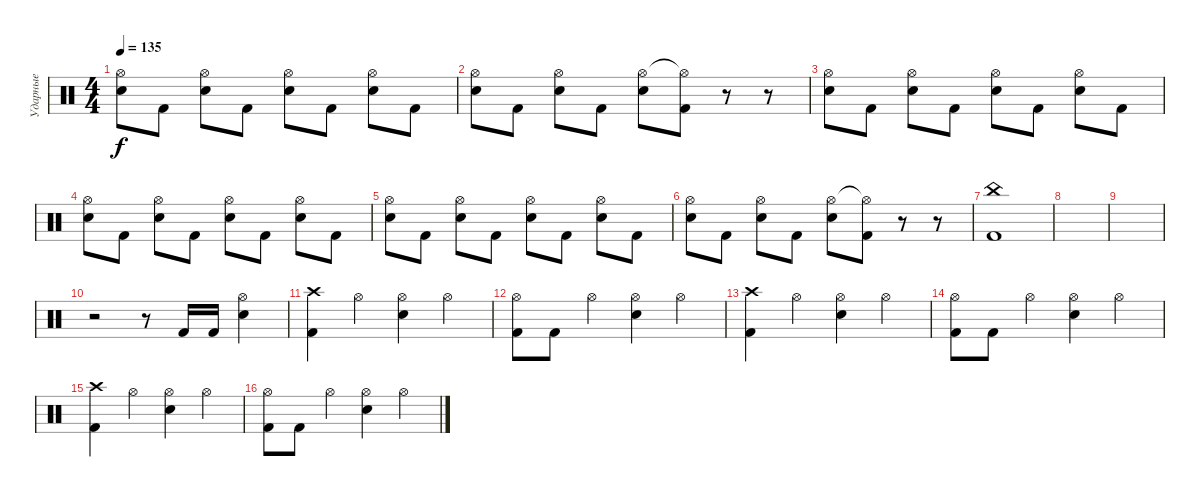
\track ("Ударные" "Ударные") {instrument percussion}
\staff {score}
\articulation defaults
\ts (4 4)
\tempo 135
\clef neutral
\ks c
("Hi-Hat (open)" "Electric Snare (hit)").8{dy f} "Kick (hit) 2".8 ("Hi-Hat (open)" "Electric Snare (hit)").8 "Kick (hit) 2".8 ("Hi-Hat (open)" "Electric Snare (hit)").8 "Kick (hit) 2".8 ("Hi-Hat (open)" "Electric Snare (hit)").8 "Kick (hit) 2".8 |
("Hi-Hat (open)" "Electric Snare (hit)").8 "Kick (hit) 2".8 ("Hi-Hat (open)" "Electric Snare (hit)").8 "Kick (hit) 2".8 ("Hi-Hat (open)" "Electric Snare (hit)").8 ("Hi-Hat (open)"{t} "Kick (hit) 2").8 r.8 r.8 |
("Hi-Hat (open)" "Electric Snare (hit)").8 "Kick (hit) 2".8 ("Hi-Hat (open)" "Electric Snare (hit)").8 "Kick (hit) 2".8 ("Hi-Hat (open)" "Electric Snare (hit)").8 "Kick (hit) 2".8 ("Hi-Hat (open)" "Electric Snare (hit)").8 "Kick (hit) 2".8 |
("Hi-Hat (open)" "Electric Snare (hit)").8 "Kick (hit) 2".8 ("Hi-Hat (open)" "Electric Snare (hit)").8 "Kick (hit) 2".8 ("Hi-Hat (open)" "Electric Snare (hit)").8 "Kick (hit) 2".8 ("Hi-Hat (open)" "Electric Snare (hit)").8 "Kick (hit) 2".8 |
("Hi-Hat (open)" "Electric Snare (hit)").8 "Kick (hit) 2".8 ("Hi-Hat (open)" "Electric Snare (hit)").8 "Kick (hit) 2".8 ("Hi-Hat (open)" "Electric Snare (hit)").8 "Kick (hit) 2".8 ("Hi-Hat (open)" "Electric Snare (hit)").8 "Kick (hit) 2".8 |
("Hi-Hat (open)" "Electric Snare (hit)").8 "Kick (hit) 2".8 ("Hi-Hat (open)" "Electric Snare (hit)").8 "Kick (hit) 2".8 ("Hi-Hat (open)" "Electric Snare (hit)").8 ("Hi-Hat (open)"{t} "Kick (hit) 2").8 r.8 r.8 |
("China (hit)" "Kick (hit) 2").1 |
|
|
r.2 r.8 "Kick (hit) 2".16 "Kick (hit) 2".16 ("Hi-Hat (open)" "Electric Snare (hit)").4 |
("Crash high (hit)" "Kick (hit) 2").4 "Hi-Hat (open)".4 ("Hi-Hat (open)" "Electric Snare (hit)").4 "Hi-Hat (open)".4 |
("Hi-Hat (open)" "Kick (hit) 2").8 "Kick (hit) 2".8 "Hi-Hat (open)".4 ("Hi-Hat (open)" "Electric Snare (hit)").4 "Hi-Hat (open)".4 |
("Crash high (hit)" "Kick (hit) 2").4 "Hi-Hat (open)".4 ("Hi-Hat (open)" "Electric Snare (hit)").4 "Hi-Hat (open)".4 |
("Hi-Hat (open)" "Kick (hit) 2").8 "Kick (hit) 2".8 "Hi-Hat (open)".4 ("Hi-Hat (open)" "Electric Snare (hit)").4 "Hi-Hat (open)".4 |
("Crash high (hit)" "Kick (hit) 2").4 "Hi-Hat (open)".4 ("Hi-Hat (open)" "Electric Snare (hit)").4 "Hi-Hat (open)".4 |
("Hi-Hat (open)" "Kick (hit) 2").8 "Kick (hit) 2".8 "Hi-Hat (open)".4 ("Hi-Hat (open)" "Electric Snare (hit)").4 "Hi-Hat (open)".4
